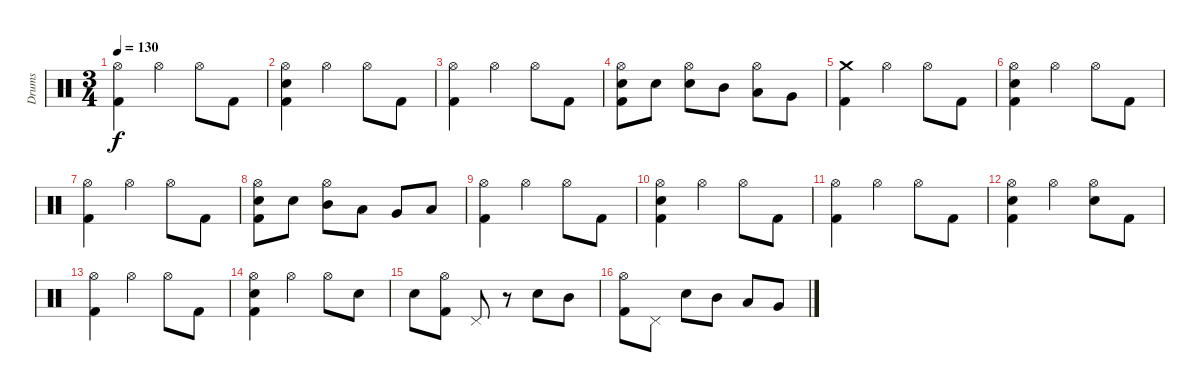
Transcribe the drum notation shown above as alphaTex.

\track ("Drums" "Drums") {instrument percussion}
\staff {score}
\articulation defaults
\ts (3 4)
\tempo 130
\clef neutral
\ks c
("Hi-Hat (open)" "Kick (hit) 2").4{dy f} "Hi-Hat (open)".4 "Hi-Hat (open)".8 "Kick (hit) 2".8 |
("Hi-Hat (open)" "Electric Snare (hit)" "Kick (hit) 2").4 "Hi-Hat (open)".4 "Hi-Hat (open)".8 "Kick (hit) 2".8 |
("Hi-Hat (open)" "Kick (hit) 2").4 "Hi-Hat (open)".4 "Hi-Hat (open)".8 "Kick (hit) 2".8 |
("Hi-Hat (open)" "Electric Snare (hit)" "Kick (hit) 2").8 "Electric Snare (hit)".8 ("Hi-Hat (open)" "Electric Snare (hit)").8 "Mid Tom (hit)".8 ("Hi-Hat (open)" "Low Tom (hit)").8 "Very Low Tom (hit)".8 |
("Crash medium (hit)" "Kick (hit) 2").4 "Hi-Hat (open)".4 "Hi-Hat (open)".8 "Kick (hit) 2".8 |
("Hi-Hat (open)" "Electric Snare (hit)" "Kick (hit) 2").4 "Hi-Hat (open)".4 "Hi-Hat (open)".8 "Kick (hit) 2".8 |
("Hi-Hat (open)" "Kick (hit) 2").4 "Hi-Hat (open)".4 "Hi-Hat (open)".8 "Kick (hit) 2".8 |
("Hi-Hat (open)" "Electric Snare (hit)" "Kick (hit) 2").8 "Electric Snare (hit)".8 ("Hi-Hat (open)" "Mid Tom (hit)").8 "Low Tom (hit)".8 "Very Low Tom (hit)".8 "Low Floor Tom (hit)".8 |
("Hi-Hat (open)" "Kick (hit) 2").4 "Hi-Hat (open)".4 "Hi-Hat (open)".8 "Kick (hit) 2".8 |
("Hi-Hat (open)" "Electric Snare (hit)" "Kick (hit) 2").4 "Hi-Hat (open)".4 "Hi-Hat (open)".8 "Kick (hit) 2".8 |
("Hi-Hat (open)" "Kick (hit) 2").4 "Hi-Hat (open)".4 "Hi-Hat (open)".8 "Kick (hit) 2".8 |
("Hi-Hat (open)" "Electric Snare (hit)" "Kick (hit) 2").4 "Hi-Hat (open)".4 ("Hi-Hat (open)" "Electric Snare (hit)").8 "Kick (hit) 2".8 |
("Hi-Hat (open)" "Kick (hit) 2").4 "Hi-Hat (open)".4 "Hi-Hat (open)".8 "Kick (hit) 2".8 |
("Hi-Hat (open)" "Electric Snare (hit)" "Kick (hit) 2").4 "Hi-Hat (open)".4 "Hi-Hat (open)".8 "Electric Snare (hit)".8 |
"Electric Snare (hit)".8 ("Hi-Hat (open)" "Kick (hit) 2").8 "Pedal Hi-Hat (hit)".8 r.8 "Electric Snare (hit)".8 "Mid Tom (hit)".8 |
("Hi-Hat (open)" "Kick (hit) 2").8 "Pedal Hi-Hat (hit)".8 "Electric Snare (hit)".8 "Mid Tom (hit)".8 "Low Tom (hit)".8 "Very Low Tom (hit)".8
